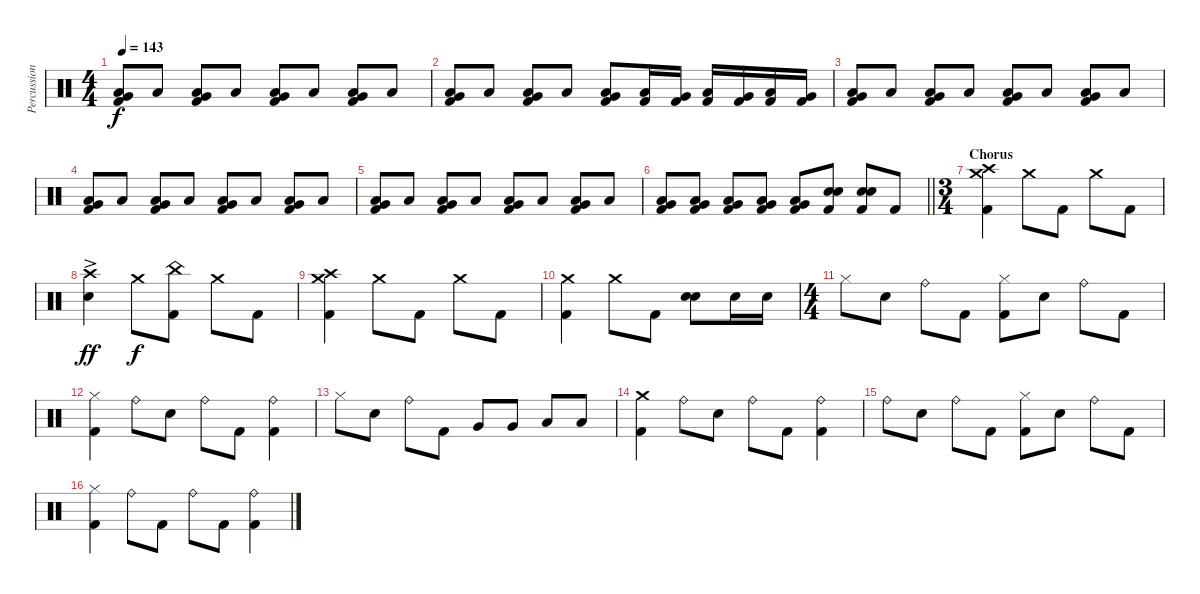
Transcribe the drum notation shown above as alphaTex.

\track ("Percussion" "Percussion") {instrument percussion}
\staff {score}
\articulation defaults
\ts (4 4)
\tempo 143
\clef neutral
\ks c
("Very Low Tom (hit)" "Low Floor Tom (hit)" "Kick (hit) 2").8{dy f} "Low Floor Tom (hit)".8 ("Very Low Tom (hit)" "Low Floor Tom (hit)" "Kick (hit) 2").8 "Low Floor Tom (hit)".8 ("Very Low Tom (hit)" "Low Floor Tom (hit)" "Kick (hit) 2").8 "Low Floor Tom (hit)".8 ("Very Low Tom (hit)" "Low Floor Tom (hit)" "Kick (hit) 2").8 "Low Floor Tom (hit)".8 |
("Very Low Tom (hit)" "Low Floor Tom (hit)" "Kick (hit) 2").8 "Low Floor Tom (hit)".8 ("Very Low Tom (hit)" "Low Floor Tom (hit)" "Kick (hit) 2").8 "Low Floor Tom (hit)".8 ("Very Low Tom (hit)" "Low Floor Tom (hit)" "Kick (hit) 2").8 ("Low Floor Tom (hit)" "Kick (hit) 2").16 ("Very Low Tom (hit)" "Kick (hit) 2").16 ("Low Floor Tom (hit)" "Kick (hit) 2").16 ("Very Low Tom (hit)" "Kick (hit) 2").16 ("Low Floor Tom (hit)" "Kick (hit) 2").16 ("Very Low Tom (hit)" "Kick (hit) 2").16 |
("Very Low Tom (hit)" "Low Floor Tom (hit)" "Kick (hit) 2").8 "Low Floor Tom (hit)".8 ("Very Low Tom (hit)" "Low Floor Tom (hit)" "Kick (hit) 2").8 "Low Floor Tom (hit)".8 ("Very Low Tom (hit)" "Low Floor Tom (hit)" "Kick (hit) 2").8 "Low Floor Tom (hit)".8 ("Very Low Tom (hit)" "Low Floor Tom (hit)" "Kick (hit) 2").8 "Low Floor Tom (hit)".8 |
("Very Low Tom (hit)" "Low Floor Tom (hit)" "Kick (hit) 2").8 "Low Floor Tom (hit)".8 ("Very Low Tom (hit)" "Low Floor Tom (hit)" "Kick (hit) 2").8 "Low Floor Tom (hit)".8 ("Very Low Tom (hit)" "Low Floor Tom (hit)" "Kick (hit) 2").8 "Low Floor Tom (hit)".8 ("Very Low Tom (hit)" "Low Floor Tom (hit)" "Kick (hit) 2").8 "Low Floor Tom (hit)".8 |
("Very Low Tom (hit)" "Low Floor Tom (hit)" "Kick (hit) 2").8 "Low Floor Tom (hit)".8 ("Very Low Tom (hit)" "Low Floor Tom (hit)" "Kick (hit) 2").8 "Low Floor Tom (hit)".8 ("Very Low Tom (hit)" "Low Floor Tom (hit)" "Kick (hit) 2").8 "Low Floor Tom (hit)".8 ("Very Low Tom (hit)" "Low Floor Tom (hit)" "Kick (hit) 2").8 "Low Floor Tom (hit)".8 |
\barLineRight lightlight
("Very Low Tom (hit)" "Low Floor Tom (hit)" "Kick (hit) 2").8 ("Very Low Tom (hit)" "Low Floor Tom (hit)" "Kick (hit) 2").8 ("Very Low Tom (hit)" "Low Floor Tom (hit)" "Kick (hit) 2").8 ("Very Low Tom (hit)" "Low Floor Tom (hit)" "Kick (hit) 2").8 ("Very Low Tom (hit)" "Low Floor Tom (hit)" "Kick (hit) 2").8 ("Electric Snare (hit)" "Electric Snare (hit)" "Kick (hit) 2").8{bd 60} ("Electric Snare (hit)" "Electric Snare (hit)" "Kick (hit) 2").8{bd 60} "Kick (hit) 2".8 |
\ts (3 4)
\section ("" "Chorus")
("Crash high (hit)" "Crash medium (hit)" "Kick (hit) 2").4 "Crash medium (hit)".8 "Kick (hit) 2".8 "Crash medium (hit)".8 "Kick (hit) 2".8 |
("Crash high (hit)"{ac} "Electric Snare (hit)"{ac}).4{dy ff} "Crash medium (hit)".8{dy f} ("China (hit)" "Kick (hit) 2").8 "Crash medium (hit)".8 "Kick (hit) 2".8 |
("Crash high (hit)" "Crash medium (hit)" "Kick (hit) 2").4 "Crash medium (hit)".8 "Kick (hit) 2".8 "Crash medium (hit)".8 "Kick (hit) 2".8 |
("Crash medium (hit)" "Kick (hit) 2").4 "Crash medium (hit)".8 "Kick (hit) 2".8 ("Electric Snare (hit)" "Electric Snare (hit)").8{bd 120} "Electric Snare (hit)".16 "Electric Snare (hit)".16 |
\ts (4 4)
"Hi-Hat (closed)".8 "Electric Snare (hit)".8 "Ride (bell)".8 "Kick (hit) 2".8 ("Hi-Hat (closed)" "Kick (hit) 2").8 "Electric Snare (hit)".8 "Ride (bell)".8 "Kick (hit) 2".8 |
("Hi-Hat (closed)" "Kick (hit) 2").4 "Ride (bell)".8 "Electric Snare (hit)".8 "Ride (bell)".8 "Kick (hit) 2".8 ("Ride (bell)" "Kick (hit) 2").4 |
"Hi-Hat (closed)".8 "Electric Snare (hit)".8 "Ride (bell)".8 "Kick (hit) 2".8 "Very Low Tom (hit)".8 "Very Low Tom (hit)".8 "Low Floor Tom (hit)".8 "Low Floor Tom (hit)".8 |
("Crash medium (hit)" "Kick (hit) 2").4 "Ride (bell)".8 "Electric Snare (hit)".8 "Ride (bell)".8 "Kick (hit) 2".8 ("Ride (bell)" "Kick (hit) 2").4 |
"Ride (bell)".8 "Electric Snare (hit)".8 "Ride (bell)".8 "Kick (hit) 2".8 ("Hi-Hat (closed)" "Kick (hit) 2").8 "Electric Snare (hit)".8 "Ride (bell)".8 "Kick (hit) 2".8 |
("Hi-Hat (closed)" "Kick (hit) 2").4 "Ride (bell)".8 "Kick (hit) 2".8 "Ride (bell)".8 "Kick (hit) 2".8 ("Ride (bell)" "Kick (hit) 2").4
